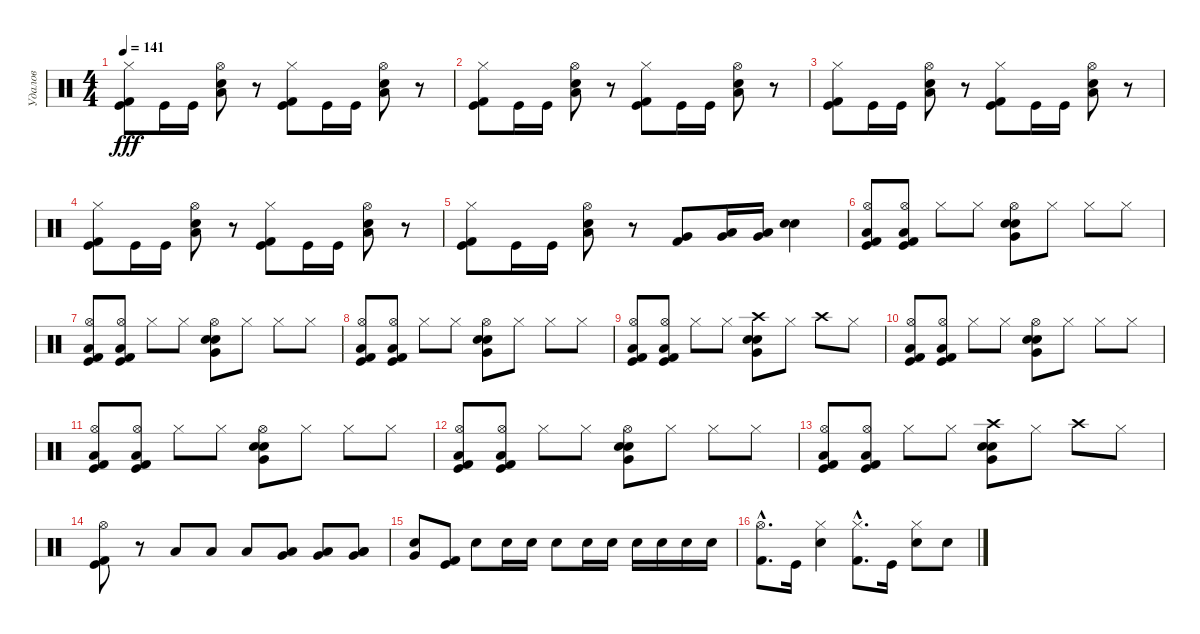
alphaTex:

\track ("Удалов" "Удалов") {instrument percussion}
\staff {score}
\articulation defaults
\ts (4 4)
\tempo 141
\clef neutral
\ks c
("Hi-Hat (closed)" "Kick (hit)" "Kick (hit) 2").8{dy fff} "Kick (hit)".16 "Kick (hit)".16 ("Hi-Hat (open)" "Low Tom (hit)" "Snare (hit) 2").8 r.8 ("Hi-Hat (closed)" "Kick (hit)" "Kick (hit) 2").8 "Kick (hit)".16 "Kick (hit)".16 ("Hi-Hat (open)" "Low Tom (hit)" "Snare (hit) 2").8 r.8 |
("Hi-Hat (closed)" "Kick (hit)" "Kick (hit) 2").8 "Kick (hit)".16 "Kick (hit)".16 ("Hi-Hat (open)" "Low Tom (hit)" "Snare (hit) 2").8 r.8 ("Hi-Hat (closed)" "Kick (hit)" "Kick (hit) 2").8 "Kick (hit)".16 "Kick (hit)".16 ("Hi-Hat (open)" "Low Tom (hit)" "Snare (hit) 2").8 r.8 |
("Hi-Hat (closed)" "Kick (hit)" "Kick (hit) 2").8 "Kick (hit)".16 "Kick (hit)".16 ("Hi-Hat (open)" "Low Tom (hit)" "Snare (hit) 2").8 r.8 ("Hi-Hat (closed)" "Kick (hit)" "Kick (hit) 2").8 "Kick (hit)".16 "Kick (hit)".16 ("Hi-Hat (open)" "Low Tom (hit)" "Snare (hit) 2").8 r.8 |
("Hi-Hat (closed)" "Kick (hit)" "Kick (hit) 2").8 "Kick (hit)".16 "Kick (hit)".16 ("Hi-Hat (open)" "Low Tom (hit)" "Snare (hit) 2").8 r.8 ("Hi-Hat (closed)" "Kick (hit)" "Kick (hit) 2").8 "Kick (hit)".16 "Kick (hit)".16 ("Hi-Hat (open)" "Low Tom (hit)" "Snare (hit) 2").8 r.8 |
("Hi-Hat (closed)" "Kick (hit) 2" "Kick (hit)").8 "Kick (hit)".16 "Kick (hit)".16 ("Hi-Hat (open)" "Low Tom (hit)" "Snare (hit) 2").8 r.8 ("Very Low Tom (hit)" "Kick (hit) 2").8 ("Low Floor Tom (hit)" "Very Low Tom (hit)").16 ("Very Low Tom (hit)" "Low Tom (hit)").16 ("Electric Snare (hit)" "Snare (hit) 2").4 |
("Hi-Hat (open)" "Low Floor Tom (hit)" "Kick (hit)" "Kick (hit) 2").8 ("Hi-Hat (open)" "Low Floor Tom (hit)" "Kick (hit)" "Kick (hit) 2").8 "Hi-Hat (closed)".8 "Hi-Hat (closed)".8 ("Hi-Hat (open)" "Very Low Tom (hit)" "Snare (hit) 2" "Electric Snare (hit)").8 "Hi-Hat (closed)".8 "Hi-Hat (closed)".8 "Hi-Hat (closed)".8 |
("Hi-Hat (open)" "Low Floor Tom (hit)" "Kick (hit)" "Kick (hit) 2").8 ("Hi-Hat (open)" "Low Floor Tom (hit)" "Kick (hit)" "Kick (hit) 2").8 "Hi-Hat (closed)".8 "Hi-Hat (closed)".8 ("Hi-Hat (open)" "Very Low Tom (hit)" "Snare (hit) 2" "Electric Snare (hit)").8 "Hi-Hat (closed)".8 "Hi-Hat (closed)".8 "Hi-Hat (closed)".8 |
("Hi-Hat (open)" "Low Floor Tom (hit)" "Kick (hit)" "Kick (hit) 2").8 ("Hi-Hat (open)" "Low Floor Tom (hit)" "Kick (hit)" "Kick (hit) 2").8 "Hi-Hat (closed)".8 "Hi-Hat (closed)".8 ("Hi-Hat (open)" "Very Low Tom (hit)" "Snare (hit) 2" "Electric Snare (hit)").8 "Hi-Hat (closed)".8 "Hi-Hat (closed)".8 "Hi-Hat (closed)".8 |
("Hi-Hat (open)" "Low Floor Tom (hit)" "Kick (hit)" "Kick (hit) 2").8 ("Hi-Hat (open)" "Low Floor Tom (hit)" "Kick (hit)" "Kick (hit) 2").8 "Hi-Hat (closed)".8 "Hi-Hat (closed)".8 ("Crash high (hit)" "Very Low Tom (hit)" "Snare (hit) 2" "Electric Snare (hit)").8 "Hi-Hat (closed)".8 "Crash high (hit)".8 "Hi-Hat (closed)".8 |
("Hi-Hat (open)" "Low Floor Tom (hit)" "Kick (hit)" "Kick (hit) 2").8 ("Hi-Hat (open)" "Low Floor Tom (hit)" "Kick (hit)" "Kick (hit) 2").8 "Hi-Hat (closed)".8 "Hi-Hat (closed)".8 ("Hi-Hat (open)" "Very Low Tom (hit)" "Snare (hit) 2" "Electric Snare (hit)").8 "Hi-Hat (closed)".8 "Hi-Hat (closed)".8 "Hi-Hat (closed)".8 |
("Hi-Hat (open)" "Low Floor Tom (hit)" "Kick (hit)" "Kick (hit) 2").8 ("Hi-Hat (open)" "Low Floor Tom (hit)" "Kick (hit)" "Kick (hit) 2").8 "Hi-Hat (closed)".8 "Hi-Hat (closed)".8 ("Hi-Hat (open)" "Very Low Tom (hit)" "Snare (hit) 2" "Electric Snare (hit)").8 "Hi-Hat (closed)".8 "Hi-Hat (closed)".8 "Hi-Hat (closed)".8 |
("Hi-Hat (open)" "Low Floor Tom (hit)" "Kick (hit)" "Kick (hit) 2").8 ("Hi-Hat (open)" "Low Floor Tom (hit)" "Kick (hit)" "Kick (hit) 2").8 "Hi-Hat (closed)".8 "Hi-Hat (closed)".8 ("Hi-Hat (open)" "Very Low Tom (hit)" "Snare (hit) 2" "Electric Snare (hit)").8 "Hi-Hat (closed)".8 "Hi-Hat (closed)".8 "Hi-Hat (closed)".8 |
("Hi-Hat (open)" "Low Floor Tom (hit)" "Kick (hit)" "Kick (hit) 2").8 ("Hi-Hat (open)" "Low Floor Tom (hit)" "Kick (hit)" "Kick (hit) 2").8 "Hi-Hat (closed)".8 "Hi-Hat (closed)".8 ("Crash high (hit)" "Very Low Tom (hit)" "Snare (hit) 2" "Electric Snare (hit)").8 "Hi-Hat (closed)".8 "Crash high (hit)".8 "Hi-Hat (closed)".8 |
("Kick (hit)" "Hi-Hat (open)" "Kick (hit) 2").8 r.8 "Low Floor Tom (hit)".8 "Low Floor Tom (hit)".8 "Low Floor Tom (hit)".8 ("Low Floor Tom (hit)" "Very Low Tom (hit)").8 ("Low Floor Tom (hit)" "Very Low Tom (hit)").8 ("Low Tom (hit)" "Very Low Tom (hit)" "Low Floor Tom (hit)").8 |
("Electric Snare (hit)" "Very Low Tom (hit)").8 ("Kick (hit)" "Kick (hit) 2").8 "Snare (hit) 2".8 "Snare (hit) 2".16 "Snare (hit) 2".16 "Snare (hit) 2".8 "Snare (hit) 2".16 "Snare (hit) 2".16 "Snare (hit) 2".16 "Snare (hit) 2".16 "Snare (hit) 2".16 "Snare (hit) 2".16 |
("Hi-Hat (open)"{hac} "Kick (hit) 2"{hac}).8{d} "Kick (hit)".16 ("Hi-Hat (closed)" "Snare (hit) 2").4 ("Hi-Hat (closed)"{hac} "Kick (hit) 2"{hac}).8{d} "Kick (hit)".16 ("Hi-Hat (closed)" "Snare (hit) 2").8 "Snare (hit) 2".8
